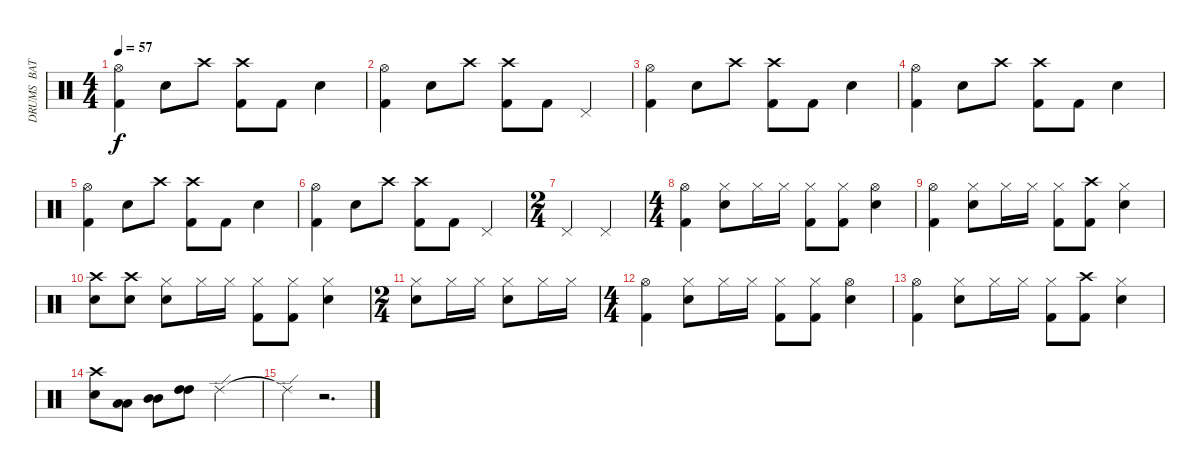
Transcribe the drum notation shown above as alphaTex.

\track ("DRUMS  BATERIA" "DRUMS  BAT") {instrument percussion}
\staff {score}
\articulation defaults
\ts (4 4)
\tempo 57
\clef neutral
\ks c
("Hi-Hat (open)" "Kick (hit) 2").4{dy f} "Snare (hit) 2".8 "Crash high (hit)".8 ("Crash high (hit)" "Kick (hit) 2").8 "Kick (hit) 2".8 "Snare (hit) 2".4 |
("Hi-Hat (open)" "Kick (hit) 2").4 "Snare (hit) 2".8 "Crash high (hit)".8 ("Crash high (hit)" "Kick (hit) 2").8 "Kick (hit) 2".8 "Pedal Hi-Hat (hit)".4 |
("Hi-Hat (open)" "Kick (hit) 2").4 "Snare (hit) 2".8 "Crash high (hit)".8 ("Crash high (hit)" "Kick (hit) 2").8 "Kick (hit) 2".8 "Snare (hit) 2".4 |
("Hi-Hat (open)" "Kick (hit) 2").4 "Snare (hit) 2".8 "Crash high (hit)".8 ("Crash high (hit)" "Kick (hit) 2").8 "Kick (hit) 2".8 "Snare (hit) 2".4 |
("Hi-Hat (open)" "Kick (hit) 2").4 "Snare (hit) 2".8 "Crash high (hit)".8 ("Crash high (hit)" "Kick (hit) 2").8 "Kick (hit) 2".8 "Snare (hit) 2".4 |
("Hi-Hat (open)" "Kick (hit) 2").4 "Snare (hit) 2".8 "Crash high (hit)".8 ("Crash high (hit)" "Kick (hit) 2").8 "Kick (hit) 2".8 "Pedal Hi-Hat (hit)".4 |
\ts (2 4)
"Pedal Hi-Hat (hit)".4 "Pedal Hi-Hat (hit)".4 |
\ts (4 4)
("Hi-Hat (open)" "Kick (hit) 2").4 ("Hi-Hat (closed)" "Snare (hit) 2").8 "Hi-Hat (closed)".16 "Hi-Hat (closed)".16 ("Hi-Hat (closed)" "Kick (hit) 2").8 ("Hi-Hat (closed)" "Kick (hit) 2").8 ("Hi-Hat (open)" "Snare (hit) 2").4 |
("Hi-Hat (open)" "Kick (hit) 2").4 ("Hi-Hat (closed)" "Snare (hit) 2").8 "Hi-Hat (closed)".16 "Hi-Hat (closed)".16 ("Hi-Hat (closed)" "Kick (hit) 2").8 ("Crash high (hit)" "Kick (hit) 2").8 ("Hi-Hat (closed)" "Snare (hit) 2").4 |
("Crash high (hit)" "Snare (hit) 2").8 ("Crash high (hit)" "Snare (hit) 2").8 ("Hi-Hat (closed)" "Snare (hit) 2").8 "Hi-Hat (closed)".16 "Hi-Hat (closed)".16 ("Hi-Hat (closed)" "Kick (hit) 2").8 ("Hi-Hat (closed)" "Kick (hit) 2").8 ("Hi-Hat (closed)" "Snare (hit) 2").4 |
\ts (2 4)
("Hi-Hat (closed)" "Snare (hit) 2").8 "Hi-Hat (closed)".16 "Hi-Hat (closed)".16 ("Hi-Hat (closed)" "Snare (hit) 2").8 "Hi-Hat (closed)".16 "Hi-Hat (closed)".16 |
\ts (4 4)
("Hi-Hat (open)" "Kick (hit) 2").4 ("Hi-Hat (closed)" "Snare (hit) 2").8 "Hi-Hat (closed)".16 "Hi-Hat (closed)".16 ("Hi-Hat (closed)" "Kick (hit) 2").8 ("Hi-Hat (closed)" "Kick (hit) 2").8 ("Hi-Hat (open)" "Snare (hit) 2").4 |
("Hi-Hat (open)" "Kick (hit) 2").4 ("Hi-Hat (closed)" "Snare (hit) 2").8 "Hi-Hat (closed)".16 "Hi-Hat (closed)".16 ("Hi-Hat (closed)" "Kick (hit) 2").8 ("Crash high (hit)" "Kick (hit) 2").8 ("Hi-Hat (closed)" "Snare (hit) 2").4 |
("Crash high (hit)" "Snare (hit) 2").8 ("Low Tom (hit)" "Low Tom (hit)").8 ("Mid Tom (hit)" "Mid Tom (hit)").8 ("High Tom (hit)" "High Tom (hit)").8 "Ride (edge) 2".2 |
"Ride (edge) 2"{t}.4 r.2{d}
